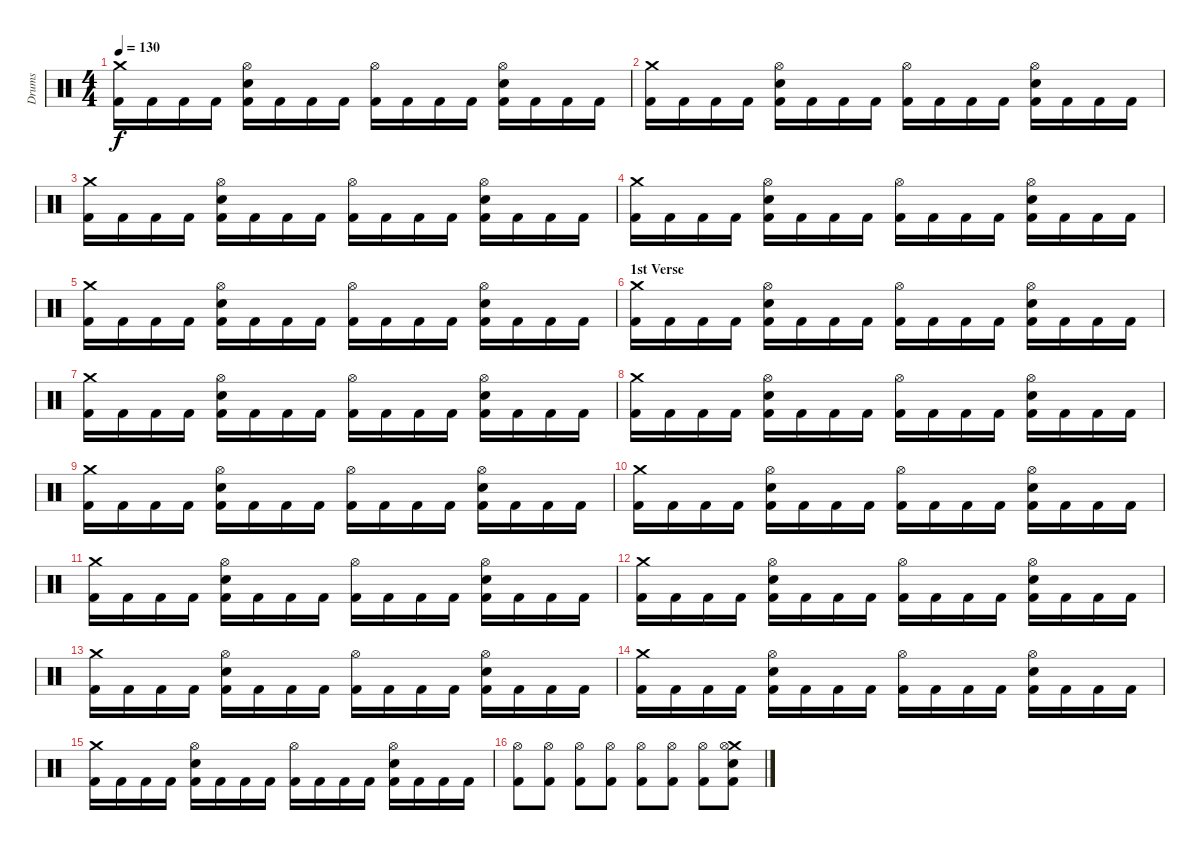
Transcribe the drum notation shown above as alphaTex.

\track ("Drums" "Drums") {instrument percussion}
\staff {score}
\articulation defaults
\ts (4 4)
\tempo 130
\clef neutral
\ks c
("Kick (hit) 2" "Crash medium (hit)").16{dy f} "Kick (hit) 2".16 "Kick (hit) 2".16 "Kick (hit) 2".16 ("Kick (hit) 2" "Electric Snare (hit)" "Hi-Hat (open)").16 "Kick (hit) 2".16 "Kick (hit) 2".16 "Kick (hit) 2".16 ("Kick (hit) 2" "Hi-Hat (open)").16 "Kick (hit) 2".16 "Kick (hit) 2".16 "Kick (hit) 2".16 ("Kick (hit) 2" "Electric Snare (hit)" "Hi-Hat (open)").16 "Kick (hit) 2".16 "Kick (hit) 2".16 "Kick (hit) 2".16 |
("Kick (hit) 2" "Crash medium (hit)").16 "Kick (hit) 2".16 "Kick (hit) 2".16 "Kick (hit) 2".16 ("Kick (hit) 2" "Electric Snare (hit)" "Hi-Hat (open)").16 "Kick (hit) 2".16 "Kick (hit) 2".16 "Kick (hit) 2".16 ("Kick (hit) 2" "Hi-Hat (open)").16 "Kick (hit) 2".16 "Kick (hit) 2".16 "Kick (hit) 2".16 ("Kick (hit) 2" "Electric Snare (hit)" "Hi-Hat (open)").16 "Kick (hit) 2".16 "Kick (hit) 2".16 "Kick (hit) 2".16 |
("Kick (hit) 2" "Crash medium (hit)").16 "Kick (hit) 2".16 "Kick (hit) 2".16 "Kick (hit) 2".16 ("Kick (hit) 2" "Electric Snare (hit)" "Hi-Hat (open)").16 "Kick (hit) 2".16 "Kick (hit) 2".16 "Kick (hit) 2".16 ("Kick (hit) 2" "Hi-Hat (open)").16 "Kick (hit) 2".16 "Kick (hit) 2".16 "Kick (hit) 2".16 ("Kick (hit) 2" "Electric Snare (hit)" "Hi-Hat (open)").16 "Kick (hit) 2".16 "Kick (hit) 2".16 "Kick (hit) 2".16 |
("Kick (hit) 2" "Crash medium (hit)").16 "Kick (hit) 2".16 "Kick (hit) 2".16 "Kick (hit) 2".16 ("Kick (hit) 2" "Electric Snare (hit)" "Hi-Hat (open)").16 "Kick (hit) 2".16 "Kick (hit) 2".16 "Kick (hit) 2".16 ("Kick (hit) 2" "Hi-Hat (open)").16 "Kick (hit) 2".16 "Kick (hit) 2".16 "Kick (hit) 2".16 ("Kick (hit) 2" "Electric Snare (hit)" "Hi-Hat (open)").16 "Kick (hit) 2".16 "Kick (hit) 2".16 "Kick (hit) 2".16 |
("Kick (hit) 2" "Crash medium (hit)").16 "Kick (hit) 2".16 "Kick (hit) 2".16 "Kick (hit) 2".16 ("Kick (hit) 2" "Electric Snare (hit)" "Hi-Hat (open)").16 "Kick (hit) 2".16 "Kick (hit) 2".16 "Kick (hit) 2".16 ("Kick (hit) 2" "Hi-Hat (open)").16 "Kick (hit) 2".16 "Kick (hit) 2".16 "Kick (hit) 2".16 ("Kick (hit) 2" "Electric Snare (hit)" "Hi-Hat (open)").16 "Kick (hit) 2".16 "Kick (hit) 2".16 "Kick (hit) 2".16 |
\section ("" "1st Verse")
("Kick (hit) 2" "Crash medium (hit)").16 "Kick (hit) 2".16 "Kick (hit) 2".16 "Kick (hit) 2".16 ("Kick (hit) 2" "Electric Snare (hit)" "Hi-Hat (open)").16 "Kick (hit) 2".16 "Kick (hit) 2".16 "Kick (hit) 2".16 ("Kick (hit) 2" "Hi-Hat (open)").16 "Kick (hit) 2".16 "Kick (hit) 2".16 "Kick (hit) 2".16 ("Kick (hit) 2" "Electric Snare (hit)" "Hi-Hat (open)").16 "Kick (hit) 2".16 "Kick (hit) 2".16 "Kick (hit) 2".16 |
("Kick (hit) 2" "Crash medium (hit)").16 "Kick (hit) 2".16 "Kick (hit) 2".16 "Kick (hit) 2".16 ("Kick (hit) 2" "Electric Snare (hit)" "Hi-Hat (open)").16 "Kick (hit) 2".16 "Kick (hit) 2".16 "Kick (hit) 2".16 ("Kick (hit) 2" "Hi-Hat (open)").16 "Kick (hit) 2".16 "Kick (hit) 2".16 "Kick (hit) 2".16 ("Kick (hit) 2" "Electric Snare (hit)" "Hi-Hat (open)").16 "Kick (hit) 2".16 "Kick (hit) 2".16 "Kick (hit) 2".16 |
("Kick (hit) 2" "Crash medium (hit)").16 "Kick (hit) 2".16 "Kick (hit) 2".16 "Kick (hit) 2".16 ("Kick (hit) 2" "Electric Snare (hit)" "Hi-Hat (open)").16 "Kick (hit) 2".16 "Kick (hit) 2".16 "Kick (hit) 2".16 ("Kick (hit) 2" "Hi-Hat (open)").16 "Kick (hit) 2".16 "Kick (hit) 2".16 "Kick (hit) 2".16 ("Kick (hit) 2" "Electric Snare (hit)" "Hi-Hat (open)").16 "Kick (hit) 2".16 "Kick (hit) 2".16 "Kick (hit) 2".16 |
("Kick (hit) 2" "Crash medium (hit)").16 "Kick (hit) 2".16 "Kick (hit) 2".16 "Kick (hit) 2".16 ("Kick (hit) 2" "Electric Snare (hit)" "Hi-Hat (open)").16 "Kick (hit) 2".16 "Kick (hit) 2".16 "Kick (hit) 2".16 ("Kick (hit) 2" "Hi-Hat (open)").16 "Kick (hit) 2".16 "Kick (hit) 2".16 "Kick (hit) 2".16 ("Kick (hit) 2" "Electric Snare (hit)" "Hi-Hat (open)").16 "Kick (hit) 2".16 "Kick (hit) 2".16 "Kick (hit) 2".16 |
("Kick (hit) 2" "Crash medium (hit)").16 "Kick (hit) 2".16 "Kick (hit) 2".16 "Kick (hit) 2".16 ("Kick (hit) 2" "Electric Snare (hit)" "Hi-Hat (open)").16 "Kick (hit) 2".16 "Kick (hit) 2".16 "Kick (hit) 2".16 ("Kick (hit) 2" "Hi-Hat (open)").16 "Kick (hit) 2".16 "Kick (hit) 2".16 "Kick (hit) 2".16 ("Kick (hit) 2" "Electric Snare (hit)" "Hi-Hat (open)").16 "Kick (hit) 2".16 "Kick (hit) 2".16 "Kick (hit) 2".16 |
("Kick (hit) 2" "Crash medium (hit)").16 "Kick (hit) 2".16 "Kick (hit) 2".16 "Kick (hit) 2".16 ("Kick (hit) 2" "Electric Snare (hit)" "Hi-Hat (open)").16 "Kick (hit) 2".16 "Kick (hit) 2".16 "Kick (hit) 2".16 ("Kick (hit) 2" "Hi-Hat (open)").16 "Kick (hit) 2".16 "Kick (hit) 2".16 "Kick (hit) 2".16 ("Kick (hit) 2" "Electric Snare (hit)" "Hi-Hat (open)").16 "Kick (hit) 2".16 "Kick (hit) 2".16 "Kick (hit) 2".16 |
("Kick (hit) 2" "Crash medium (hit)").16 "Kick (hit) 2".16 "Kick (hit) 2".16 "Kick (hit) 2".16 ("Kick (hit) 2" "Electric Snare (hit)" "Hi-Hat (open)").16 "Kick (hit) 2".16 "Kick (hit) 2".16 "Kick (hit) 2".16 ("Kick (hit) 2" "Hi-Hat (open)").16 "Kick (hit) 2".16 "Kick (hit) 2".16 "Kick (hit) 2".16 ("Kick (hit) 2" "Electric Snare (hit)" "Hi-Hat (open)").16 "Kick (hit) 2".16 "Kick (hit) 2".16 "Kick (hit) 2".16 |
("Kick (hit) 2" "Crash medium (hit)").16 "Kick (hit) 2".16 "Kick (hit) 2".16 "Kick (hit) 2".16 ("Kick (hit) 2" "Electric Snare (hit)" "Hi-Hat (open)").16 "Kick (hit) 2".16 "Kick (hit) 2".16 "Kick (hit) 2".16 ("Kick (hit) 2" "Hi-Hat (open)").16 "Kick (hit) 2".16 "Kick (hit) 2".16 "Kick (hit) 2".16 ("Kick (hit) 2" "Electric Snare (hit)" "Hi-Hat (open)").16 "Kick (hit) 2".16 "Kick (hit) 2".16 "Kick (hit) 2".16 |
("Kick (hit) 2" "Crash medium (hit)").16 "Kick (hit) 2".16 "Kick (hit) 2".16 "Kick (hit) 2".16 ("Kick (hit) 2" "Electric Snare (hit)" "Hi-Hat (open)").16 "Kick (hit) 2".16 "Kick (hit) 2".16 "Kick (hit) 2".16 ("Kick (hit) 2" "Hi-Hat (open)").16 "Kick (hit) 2".16 "Kick (hit) 2".16 "Kick (hit) 2".16 ("Kick (hit) 2" "Electric Snare (hit)" "Hi-Hat (open)").16 "Kick (hit) 2".16 "Kick (hit) 2".16 "Kick (hit) 2".16 |
("Kick (hit) 2" "Crash medium (hit)").16 "Kick (hit) 2".16 "Kick (hit) 2".16 "Kick (hit) 2".16 ("Kick (hit) 2" "Electric Snare (hit)" "Hi-Hat (open)").16 "Kick (hit) 2".16 "Kick (hit) 2".16 "Kick (hit) 2".16 ("Kick (hit) 2" "Hi-Hat (open)").16 "Kick (hit) 2".16 "Kick (hit) 2".16 "Kick (hit) 2".16 ("Kick (hit) 2" "Electric Snare (hit)" "Hi-Hat (open)").16 "Kick (hit) 2".16 "Kick (hit) 2".16 "Kick (hit) 2".16{volume 0} |
("Kick (hit) 2" "Hi-Hat (open)").8{volume 16} ("Kick (hit) 2" "Hi-Hat (open)").8 ("Kick (hit) 2" "Hi-Hat (open)").8 ("Kick (hit) 2" "Hi-Hat (open)").8 ("Kick (hit) 2" "Hi-Hat (open)").8 ("Kick (hit) 2" "Hi-Hat (open)").8 ("Kick (hit) 2" "Hi-Hat (open)").8 ("Kick (hit) 2" "Crash medium (hit)" "Hi-Hat (open)" "Electric Snare (hit)").8
